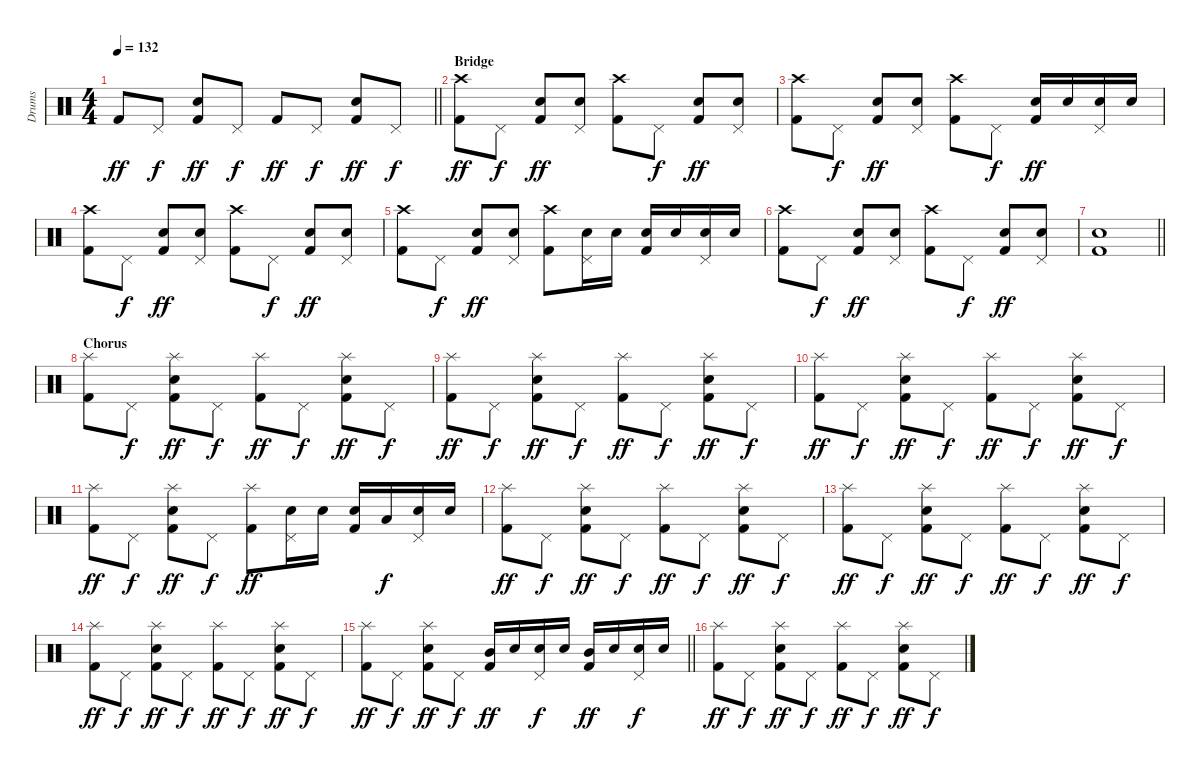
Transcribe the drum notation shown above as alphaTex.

\track ("Drums" "Drums") {instrument percussion}
\staff {score}
\articulation defaults
\ts (4 4)
\tempo 132
\clef neutral
\barLineRight lightlight
\ks c "Kick (hit) 2".8{dy ff} "Pedal Hi-Hat (hit)".8{dy f}
("Snare (hit) 2" "Kick (hit) 2").8{dy ff} "Pedal Hi-Hat (hit)".8{dy f} "Kick (hit) 2".8{dy ff} "Pedal Hi-Hat (hit)".8{dy f} ("Snare (hit) 2" "Kick (hit) 2").8{dy ff} "Pedal Hi-Hat (hit)".8{dy f} |
\section ("" "Bridge")
("Crash high (hit)" "Kick (hit) 2").8{dy ff} "Pedal Hi-Hat (hit)".8{dy f} ("Snare (hit) 2" "Kick (hit) 2").8{dy ff} ("Pedal Hi-Hat (hit)" "Snare (hit) 2").8 ("Crash high (hit)" "Kick (hit) 2").8 "Pedal Hi-Hat (hit)".8{dy f} ("Snare (hit) 2" "Kick (hit) 2").8{dy ff} ("Pedal Hi-Hat (hit)" "Snare (hit) 2").8 |
("Crash high (hit)" "Kick (hit) 2").8 "Pedal Hi-Hat (hit)".8{dy f} ("Snare (hit) 2" "Kick (hit) 2").8{dy ff} ("Pedal Hi-Hat (hit)" "Snare (hit) 2").8 ("Crash high (hit)" "Kick (hit) 2").8 "Pedal Hi-Hat (hit)".8{dy f} ("Snare (hit) 2" "Kick (hit) 2").16{dy ff} "Snare (hit) 2".16 ("Pedal Hi-Hat (hit)" "Snare (hit) 2").16 "Snare (hit) 2".16 |
("Crash high (hit)" "Kick (hit) 2").8 "Pedal Hi-Hat (hit)".8{dy f} ("Snare (hit) 2" "Kick (hit) 2").8{dy ff} ("Pedal Hi-Hat (hit)" "Snare (hit) 2").8 ("Crash high (hit)" "Kick (hit) 2").8 "Pedal Hi-Hat (hit)".8{dy f} ("Snare (hit) 2" "Kick (hit) 2").8{dy ff} ("Pedal Hi-Hat (hit)" "Snare (hit) 2").8 |
("Crash high (hit)" "Kick (hit) 2").8 "Pedal Hi-Hat (hit)".8{dy f} ("Snare (hit) 2" "Kick (hit) 2").8{dy ff} ("Pedal Hi-Hat (hit)" "Snare (hit) 2").8 ("Crash high (hit)" "Kick (hit) 2").8 ("Pedal Hi-Hat (hit)" "Snare (hit) 2").16 "Snare (hit) 2".16 ("Snare (hit) 2" "Kick (hit) 2").16 "Snare (hit) 2".16 ("Pedal Hi-Hat (hit)" "Snare (hit) 2").16 "Snare (hit) 2".16 |
("Crash high (hit)" "Kick (hit) 2").8 "Pedal Hi-Hat (hit)".8{dy f} ("Snare (hit) 2" "Kick (hit) 2").8{dy ff} ("Pedal Hi-Hat (hit)" "Snare (hit) 2").8 ("Crash high (hit)" "Kick (hit) 2").8 "Pedal Hi-Hat (hit)".8{dy f} ("Snare (hit) 2" "Kick (hit) 2").8{dy ff} ("Pedal Hi-Hat (hit)" "Snare (hit) 2").8 |
\barLineRight lightlight
("Snare (hit) 2" "Kick (hit) 2").1 |
\section ("" "Chorus")
("Splash (hit)" "Kick (hit) 2").8 "Pedal Hi-Hat (hit)".8{dy f} ("Splash (hit)" "Snare (hit) 2" "Kick (hit) 2").8{dy ff} "Pedal Hi-Hat (hit)".8{dy f} ("Splash (hit)" "Kick (hit) 2").8{dy ff} "Pedal Hi-Hat (hit)".8{dy f} ("Splash (hit)" "Snare (hit) 2" "Kick (hit) 2").8{dy ff} "Pedal Hi-Hat (hit)".8{dy f} |
("Splash (hit)" "Kick (hit) 2").8{dy ff} "Pedal Hi-Hat (hit)".8{dy f} ("Splash (hit)" "Snare (hit) 2" "Kick (hit) 2").8{dy ff} "Pedal Hi-Hat (hit)".8{dy f} ("Splash (hit)" "Kick (hit) 2").8{dy ff} "Pedal Hi-Hat (hit)".8{dy f} ("Splash (hit)" "Snare (hit) 2" "Kick (hit) 2").8{dy ff} "Pedal Hi-Hat (hit)".8{dy f} |
("Splash (hit)" "Kick (hit) 2").8{dy ff} "Pedal Hi-Hat (hit)".8{dy f} ("Splash (hit)" "Snare (hit) 2" "Kick (hit) 2").8{dy ff} "Pedal Hi-Hat (hit)".8{dy f} ("Splash (hit)" "Kick (hit) 2").8{dy ff} "Pedal Hi-Hat (hit)".8{dy f} ("Splash (hit)" "Snare (hit) 2" "Kick (hit) 2").8{dy ff} "Pedal Hi-Hat (hit)".8{dy f} |
("Splash (hit)" "Kick (hit) 2").8{dy ff} "Pedal Hi-Hat (hit)".8{dy f} ("Splash (hit)" "Snare (hit) 2" "Kick (hit) 2").8{dy ff} "Pedal Hi-Hat (hit)".8{dy f} ("Splash (hit)" "Kick (hit) 2").8{dy ff} ("Pedal Hi-Hat (hit)" "Snare (hit) 2").16 "Snare (hit) 2".16 ("Snare (hit) 2" "Kick (hit) 2").16 "Low Tom (hit)".16{dy f} ("Pedal Hi-Hat (hit)" "Snare (hit) 2").16 "Snare (hit) 2".16 |
("Splash (hit)" "Kick (hit) 2").8{dy ff} "Pedal Hi-Hat (hit)".8{dy f} ("Splash (hit)" "Snare (hit) 2" "Kick (hit) 2").8{dy ff} "Pedal Hi-Hat (hit)".8{dy f} ("Splash (hit)" "Kick (hit) 2").8{dy ff} "Pedal Hi-Hat (hit)".8{dy f} ("Splash (hit)" "Snare (hit) 2" "Kick (hit) 2").8{dy ff} "Pedal Hi-Hat (hit)".8{dy f} |
("Splash (hit)" "Kick (hit) 2").8{dy ff} "Pedal Hi-Hat (hit)".8{dy f} ("Splash (hit)" "Snare (hit) 2" "Kick (hit) 2").8{dy ff} "Pedal Hi-Hat (hit)".8{dy f} ("Splash (hit)" "Kick (hit) 2").8{dy ff} "Pedal Hi-Hat (hit)".8{dy f} ("Splash (hit)" "Snare (hit) 2" "Kick (hit) 2").8{dy ff} "Pedal Hi-Hat (hit)".8{dy f} |
("Splash (hit)" "Kick (hit) 2").8{dy ff} "Pedal Hi-Hat (hit)".8{dy f} ("Splash (hit)" "Snare (hit) 2" "Kick (hit) 2").8{dy ff} "Pedal Hi-Hat (hit)".8{dy f} ("Splash (hit)" "Kick (hit) 2").8{dy ff} "Pedal Hi-Hat (hit)".8{dy f} ("Splash (hit)" "Snare (hit) 2" "Kick (hit) 2").8{dy ff} "Pedal Hi-Hat (hit)".8{dy f} |
\barLineRight lightlight
("Splash (hit)" "Kick (hit) 2").8{dy ff} "Pedal Hi-Hat (hit)".8{dy f} ("Splash (hit)" "Snare (hit) 2" "Kick (hit) 2").8{dy ff} "Pedal Hi-Hat (hit)".8{dy f} ("Mid Tom (hit)" "Kick (hit) 2").16{dy ff} "Snare (hit) 2".16 ("Pedal Hi-Hat (hit)" "Snare (hit) 2").16{dy f} "Snare (hit) 2".16 ("Mid Tom (hit)" "Kick (hit) 2").16{dy ff} "Snare (hit) 2".16 ("Pedal Hi-Hat (hit)" "Snare (hit) 2").16{dy f} "Snare (hit) 2".16 |
("Splash (hit)" "Kick (hit) 2").8{dy ff} "Pedal Hi-Hat (hit)".8{dy f} ("Splash (hit)" "Snare (hit) 2" "Kick (hit) 2").8{dy ff} "Pedal Hi-Hat (hit)".8{dy f} ("Splash (hit)" "Kick (hit) 2").8{dy ff} "Pedal Hi-Hat (hit)".8{dy f} ("Splash (hit)" "Snare (hit) 2" "Kick (hit) 2").8{dy ff} "Pedal Hi-Hat (hit)".8{dy f}
